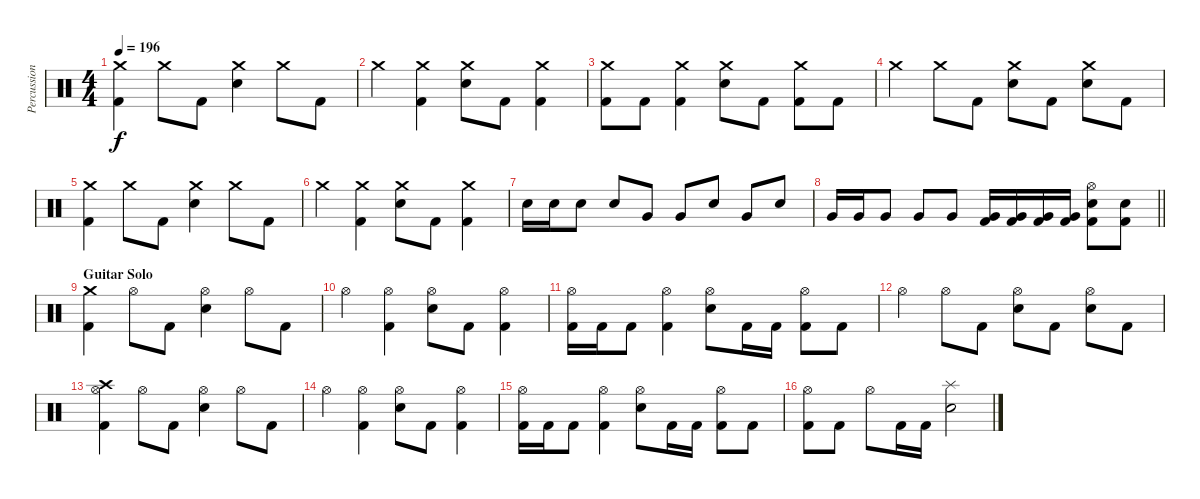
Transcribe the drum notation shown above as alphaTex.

\track ("Percussion" "Percussion") {instrument percussion}
\staff {score}
\articulation defaults
\ts (4 4)
\tempo 196
\clef neutral
\ks c
("Crash medium (hit)" "Kick (hit) 2").4{dy f} "Crash medium (hit)".8 "Kick (hit) 2".8 ("Crash medium (hit)" "Electric Snare (hit)").4 "Crash medium (hit)".8 "Kick (hit) 2".8 |
"Crash medium (hit)".4 ("Crash medium (hit)" "Kick (hit) 2").4 ("Crash medium (hit)" "Electric Snare (hit)").8 "Kick (hit) 2".8 ("Crash medium (hit)" "Kick (hit) 2").4 |
("Crash medium (hit)" "Kick (hit) 2").8 "Kick (hit) 2".8 ("Crash medium (hit)" "Kick (hit) 2").4 ("Crash medium (hit)" "Electric Snare (hit)").8 "Kick (hit) 2".8 ("Crash medium (hit)" "Kick (hit) 2").8 "Kick (hit) 2".8 |
"Crash medium (hit)".4 "Crash medium (hit)".8 "Kick (hit) 2".8 ("Crash medium (hit)" "Electric Snare (hit)").8 "Kick (hit) 2".8 ("Crash medium (hit)" "Electric Snare (hit)").8 "Kick (hit) 2".8 |
("Crash medium (hit)" "Kick (hit) 2").4 "Crash medium (hit)".8 "Kick (hit) 2".8 ("Crash medium (hit)" "Electric Snare (hit)").4 "Crash medium (hit)".8 "Kick (hit) 2".8 |
"Crash medium (hit)".4 ("Crash medium (hit)" "Kick (hit) 2").4 ("Crash medium (hit)" "Electric Snare (hit)").8 "Kick (hit) 2".8 ("Crash medium (hit)" "Kick (hit) 2").4 |
"Electric Snare (hit)".16 "Electric Snare (hit)".16 "Electric Snare (hit)".8 "Electric Snare (hit)".8 "Very Low Tom (hit)".8 "Very Low Tom (hit)".8 "Electric Snare (hit)".8 "Very Low Tom (hit)".8 "Electric Snare (hit)".8 |
\barLineRight lightlight "Very Low Tom (hit)".16 "Very Low Tom (hit)".16 "Very Low Tom (hit)".8 "Very Low Tom (hit)".8 "Very Low Tom (hit)".8
("Very Low Tom (hit)" "Kick (hit) 2").16 ("Very Low Tom (hit)" "Kick (hit) 2").16 ("Very Low Tom (hit)" "Kick (hit) 2").16 ("Very Low Tom (hit)" "Kick (hit) 2").16 ("Hi-Hat (open)" "Electric Snare (hit)" "Kick (hit) 2").8 ("Electric Snare (hit)" "Kick (hit) 2").8 |
\section ("" "Guitar Solo")
("Crash medium (hit)" "Kick (hit) 2").4 "Hi-Hat (open)".8 "Kick (hit) 2".8 ("Hi-Hat (open)" "Electric Snare (hit)").4 "Hi-Hat (open)".8 "Kick (hit) 2".8 |
"Hi-Hat (open)".4 ("Hi-Hat (open)" "Kick (hit) 2").4 ("Hi-Hat (open)" "Electric Snare (hit)").8 "Kick (hit) 2".8 ("Hi-Hat (open)" "Kick (hit) 2").4 |
("Hi-Hat (open)" "Kick (hit) 2").16 "Kick (hit) 2".16 "Kick (hit) 2".8 ("Hi-Hat (open)" "Kick (hit) 2").4 ("Hi-Hat (open)" "Electric Snare (hit)").8 "Kick (hit) 2".16 "Kick (hit) 2".16 ("Hi-Hat (open)" "Kick (hit) 2").8 "Kick (hit) 2".8 |
"Hi-Hat (open)".4 "Hi-Hat (open)".8 "Kick (hit) 2".8 ("Hi-Hat (open)" "Electric Snare (hit)").8 "Kick (hit) 2".8 ("Hi-Hat (open)" "Electric Snare (hit)").8 "Kick (hit) 2".8 |
("Hi-Hat (open)" "Crash high (hit)" "Kick (hit) 2").4 "Hi-Hat (open)".8 "Kick (hit) 2".8 ("Hi-Hat (open)" "Electric Snare (hit)").4 "Hi-Hat (open)".8 "Kick (hit) 2".8 |
"Hi-Hat (open)".4 ("Hi-Hat (open)" "Kick (hit) 2").4 ("Hi-Hat (open)" "Electric Snare (hit)").8 "Kick (hit) 2".8 ("Hi-Hat (open)" "Kick (hit) 2").4 |
("Hi-Hat (open)" "Kick (hit) 2").16 "Kick (hit) 2".16 "Kick (hit) 2".8 ("Hi-Hat (open)" "Kick (hit) 2").4 ("Hi-Hat (open)" "Electric Snare (hit)").8 "Kick (hit) 2".16 "Kick (hit) 2".16 ("Hi-Hat (open)" "Kick (hit) 2").8 "Kick (hit) 2".8 |
("Hi-Hat (open)" "Kick (hit) 2").8 "Kick (hit) 2".8 "Hi-Hat (open)".8 "Kick (hit) 2".16 "Kick (hit) 2".16 ("Splash (hit)" "Electric Snare (hit)").2
